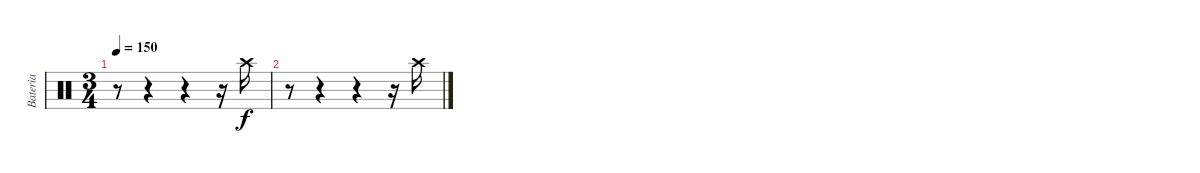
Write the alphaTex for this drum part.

\track ("Bateria" "Bateria") {instrument percussion}
\staff {score}
\articulation defaults
\ts (3 4)
\tempo 150
\clef neutral
\ks c
r.8{dy f} r.4 r.4 r.16 "Crash high (hit)".16 |
r.8 r.4 r.4 r.16 "Crash high (hit)".16
